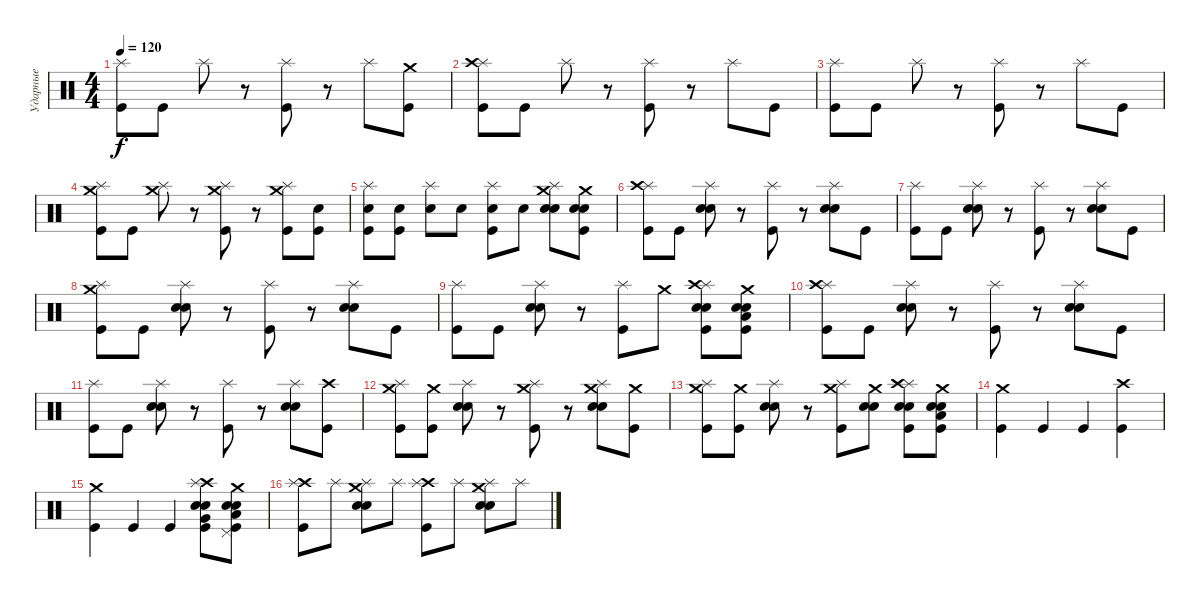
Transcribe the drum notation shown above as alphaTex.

\track ("Ударные" "Ударные") {instrument percussion}
\staff {score}
\articulation defaults
\ts (4 4)
\tempo 120
\clef neutral
\ks c
("Splash (hit)" "Kick (hit)").8{dy f} "Kick (hit)".8 "Splash (hit)".8 r.8 ("Splash (hit)" "Kick (hit)").8 r.8 "Splash (hit)".8 ("Crash medium (hit)" "Kick (hit)").8 |
("Splash (hit)" "Crash high (hit)" "Kick (hit)").8 "Kick (hit)".8 "Splash (hit)".8 r.8 ("Splash (hit)" "Kick (hit)").8 r.8 "Splash (hit)".8 "Kick (hit)".8 |
("Splash (hit)" "Kick (hit)").8 "Kick (hit)".8 "Splash (hit)".8 r.8 ("Splash (hit)" "Kick (hit)").8 r.8 "Splash (hit)".8 "Kick (hit)".8 |
("Splash (hit)" "Crash medium (hit)" "Kick (hit)").8 "Kick (hit)".8 ("Splash (hit)" "Crash medium (hit)").8 r.8 ("Splash (hit)" "Crash medium (hit)" "Kick (hit)").8 r.8 ("Splash (hit)" "Crash medium (hit)" "Kick (hit)").8 ("Snare (hit) 2" "Kick (hit)").8 |
("Splash (hit)" "Snare (hit) 2" "Kick (hit)").8 ("Snare (hit) 2" "Kick (hit)").8 ("Splash (hit)" "Snare (hit) 2").8 "Snare (hit) 2".8 ("Splash (hit)" "Snare (hit) 2" "Kick (hit)").8 "Electric Snare (hit)".8 ("Splash (hit)" "Crash medium (hit)" "Electric Snare (hit)" "Electric Snare (hit)").8 ("Crash medium (hit)" "Electric Snare (hit)" "Electric Snare (hit)" "Kick (hit)").8 |
("Splash (hit)" "Crash high (hit)" "Kick (hit)").8 "Kick (hit)".8 ("Splash (hit)" "Electric Snare (hit)" "Electric Snare (hit)").8 r.8 ("Splash (hit)" "Kick (hit)").8 r.8 ("Splash (hit)" "Electric Snare (hit)" "Electric Snare (hit)").8 "Kick (hit)".8 |
("Splash (hit)" "Kick (hit)").8 "Kick (hit)".8 ("Splash (hit)" "Electric Snare (hit)" "Electric Snare (hit)").8 r.8 ("Splash (hit)" "Kick (hit)").8 r.8 ("Splash (hit)" "Electric Snare (hit)" "Electric Snare (hit)").8 "Kick (hit)".8 |
("Splash (hit)" "Crash medium (hit)" "Kick (hit)").8 "Kick (hit)".8 ("Splash (hit)" "Electric Snare (hit)" "Electric Snare (hit)").8 r.8 ("Splash (hit)" "Kick (hit)").8 r.8 ("Splash (hit)" "Electric Snare (hit)" "Electric Snare (hit)").8 "Kick (hit)".8 |
("Splash (hit)" "Kick (hit)").8 "Kick (hit)".8 ("Splash (hit)" "Electric Snare (hit)" "Electric Snare (hit)").8 r.8 ("Splash (hit)" "Kick (hit)").8 "Crash medium (hit)".8 ("Splash (hit)" "Crash high (hit)" "Electric Snare (hit)" "Electric Snare (hit)" "Kick (hit)").8 ("Crash medium (hit)" "Electric Snare (hit)" "Electric Snare (hit)" "Low Floor Tom (hit)" "Kick (hit)").8 |
("Splash (hit)" "Crash high (hit)" "Kick (hit)").8 "Kick (hit)".8 ("Splash (hit)" "Electric Snare (hit)" "Electric Snare (hit)").8 r.8 ("Splash (hit)" "Kick (hit)").8 r.8 ("Splash (hit)" "Electric Snare (hit)" "Electric Snare (hit)").8 "Kick (hit)".8 |
("Splash (hit)" "Kick (hit)").8 "Kick (hit)".8 ("Splash (hit)" "Electric Snare (hit)" "Electric Snare (hit)").8 r.8 ("Splash (hit)" "Kick (hit)").8 r.8 ("Splash (hit)" "Electric Snare (hit)" "Electric Snare (hit)").8 ("Crash high (hit)" "Kick (hit)").8 |
("Splash (hit)" "Crash medium (hit)" "Kick (hit)").8 ("Crash medium (hit)" "Kick (hit)").8 ("Splash (hit)" "Electric Snare (hit)" "Electric Snare (hit)").8 r.8 ("Splash (hit)" "Crash medium (hit)" "Kick (hit)").8 r.8 ("Splash (hit)" "Crash medium (hit)" "Electric Snare (hit)" "Electric Snare (hit)").8 ("Crash medium (hit)" "Kick (hit)").8 |
("Splash (hit)" "Crash medium (hit)" "Kick (hit)").8 ("Crash medium (hit)" "Kick (hit)").8 ("Splash (hit)" "Electric Snare (hit)" "Electric Snare (hit)").8 r.8 ("Splash (hit)" "Crash medium (hit)" "Kick (hit)").8 ("Crash medium (hit)" "Electric Snare (hit)" "Electric Snare (hit)").8 ("Splash (hit)" "Crash high (hit)" "Electric Snare (hit)" "Electric Snare (hit)" "Kick (hit)").8 ("Crash medium (hit)" "Electric Snare (hit)" "Electric Snare (hit)" "Low Floor Tom (hit)" "Kick (hit)").8 |
("Crash medium (hit)" "Kick (hit)").4 "Kick (hit)".4 "Kick (hit)".4 ("Crash high (hit)" "Kick (hit)").4 |
("Crash medium (hit)" "Kick (hit)").4 "Kick (hit)".4 "Kick (hit)".4 ("Crash high (hit)" "Splash (hit)" "Electric Snare (hit)" "Electric Snare (hit)" "Very Low Tom (hit)" "Kick (hit)").8 ("Crash medium (hit)" "Pedal Hi-Hat (hit)" "Electric Snare (hit)" "Electric Snare (hit)" "Low Floor Tom (hit)" "Kick (hit)").8 |
("Crash high (hit)" "Splash (hit)" "Kick (hit)").8 "Splash (hit)".8 ("Crash medium (hit)" "Splash (hit)" "Electric Snare (hit)" "Electric Snare (hit)").8 "Splash (hit)".8 ("Crash high (hit)" "Splash (hit)" "Kick (hit)").8 "Splash (hit)".8 ("Crash medium (hit)" "Splash (hit)" "Electric Snare (hit)" "Electric Snare (hit)").8 "Splash (hit)".8
